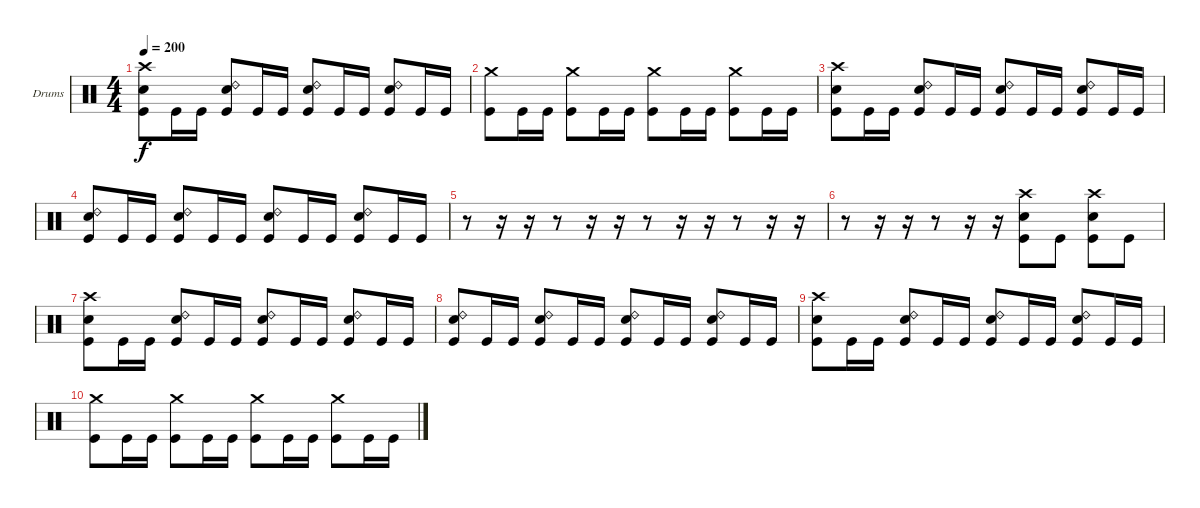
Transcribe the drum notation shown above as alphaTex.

\bracketExtendMode groupsimilarinstruments
\firstSystemTrackNameOrientation horizontal
\otherSystemsTrackNameOrientation horizontal
\track ("Canadien" "Drums") {instrument percussion}
\staff {score}
\articulation defaults
\ts (4 4)
\tempo 200
\clef neutral
\ks c
("Crash high (hit)" "Snare (hit) 2" "Kick (hit)").8{dy f} "Kick (hit)".16 "Kick (hit)".16 ("Ride (bell) 2" "Snare (hit) 2" "Kick (hit)").8 "Kick (hit)".16 "Kick (hit)".16 ("Ride (bell) 2" "Snare (hit) 2" "Kick (hit)").8 "Kick (hit)".16 "Kick (hit)".16 ("Ride (bell) 2" "Snare (hit) 2" "Kick (hit)").8 "Kick (hit)".16 "Kick (hit)".16 |
("Crash medium (hit)" "Kick (hit)").8 "Kick (hit)".16 "Kick (hit)".16 ("Crash medium (hit)" "Kick (hit)").8 "Kick (hit)".16 "Kick (hit)".16 ("Crash medium (hit)" "Kick (hit)").8 "Kick (hit)".16 "Kick (hit)".16 ("Crash medium (hit)" "Kick (hit)").8 "Kick (hit)".16 "Kick (hit)".16 |
("Crash high (hit)" "Snare (hit) 2" "Kick (hit)").8 "Kick (hit)".16 "Kick (hit)".16 ("Ride (bell) 2" "Snare (hit) 2" "Kick (hit)").8 "Kick (hit)".16 "Kick (hit)".16 ("Ride (bell) 2" "Snare (hit) 2" "Kick (hit)").8 "Kick (hit)".16 "Kick (hit)".16 ("Ride (bell) 2" "Snare (hit) 2" "Kick (hit)").8 "Kick (hit)".16 "Kick (hit)".16 |
("Ride (bell) 2" "Snare (hit) 2" "Kick (hit)").8 "Kick (hit)".16 "Kick (hit)".16 ("Ride (bell) 2" "Snare (hit) 2" "Kick (hit)").8 "Kick (hit)".16 "Kick (hit)".16 ("Ride (bell) 2" "Snare (hit) 2" "Kick (hit)").8 "Kick (hit)".16 "Kick (hit)".16 ("Ride (bell) 2" "Snare (hit) 2" "Kick (hit)").8 "Kick (hit)".16 "Kick (hit)".16 |
r.8 r.16 r.16 r.8 r.16 r.16 r.8 r.16 r.16 r.8 r.16 r.16 |
r.8 r.16 r.16 r.8 r.16 r.16 ("Crash high (hit)" "Snare (hit) 2" "Kick (hit)").8 "Kick (hit)".8 ("Crash high (hit)" "Snare (hit) 2" "Kick (hit)").8 "Kick (hit)".8 |
("Crash high (hit)" "Snare (hit) 2" "Kick (hit)").8 "Kick (hit)".16 "Kick (hit)".16 ("Ride (bell) 2" "Snare (hit) 2" "Kick (hit)").8 "Kick (hit)".16 "Kick (hit)".16 ("Ride (bell) 2" "Snare (hit) 2" "Kick (hit)").8 "Kick (hit)".16 "Kick (hit)".16 ("Ride (bell) 2" "Snare (hit) 2" "Kick (hit)").8 "Kick (hit)".16 "Kick (hit)".16 |
("Ride (bell) 2" "Snare (hit) 2" "Kick (hit)").8 "Kick (hit)".16 "Kick (hit)".16 ("Ride (bell) 2" "Snare (hit) 2" "Kick (hit)").8 "Kick (hit)".16 "Kick (hit)".16 ("Ride (bell) 2" "Snare (hit) 2" "Kick (hit)").8 "Kick (hit)".16 "Kick (hit)".16 ("Ride (bell) 2" "Snare (hit) 2" "Kick (hit)").8 "Kick (hit)".16 "Kick (hit)".16 |
("Crash high (hit)" "Snare (hit) 2" "Kick (hit)").8 "Kick (hit)".16 "Kick (hit)".16 ("Ride (bell) 2" "Snare (hit) 2" "Kick (hit)").8 "Kick (hit)".16 "Kick (hit)".16 ("Ride (bell) 2" "Snare (hit) 2" "Kick (hit)").8 "Kick (hit)".16 "Kick (hit)".16 ("Ride (bell) 2" "Snare (hit) 2" "Kick (hit)").8 "Kick (hit)".16 "Kick (hit)".16 |
("Crash medium (hit)" "Kick (hit)").8 "Kick (hit)".16 "Kick (hit)".16 ("Crash medium (hit)" "Kick (hit)").8 "Kick (hit)".16 "Kick (hit)".16 ("Crash medium (hit)" "Kick (hit)").8 "Kick (hit)".16 "Kick (hit)".16 ("Crash medium (hit)" "Kick (hit)").8 "Kick (hit)".16 "Kick (hit)".16
